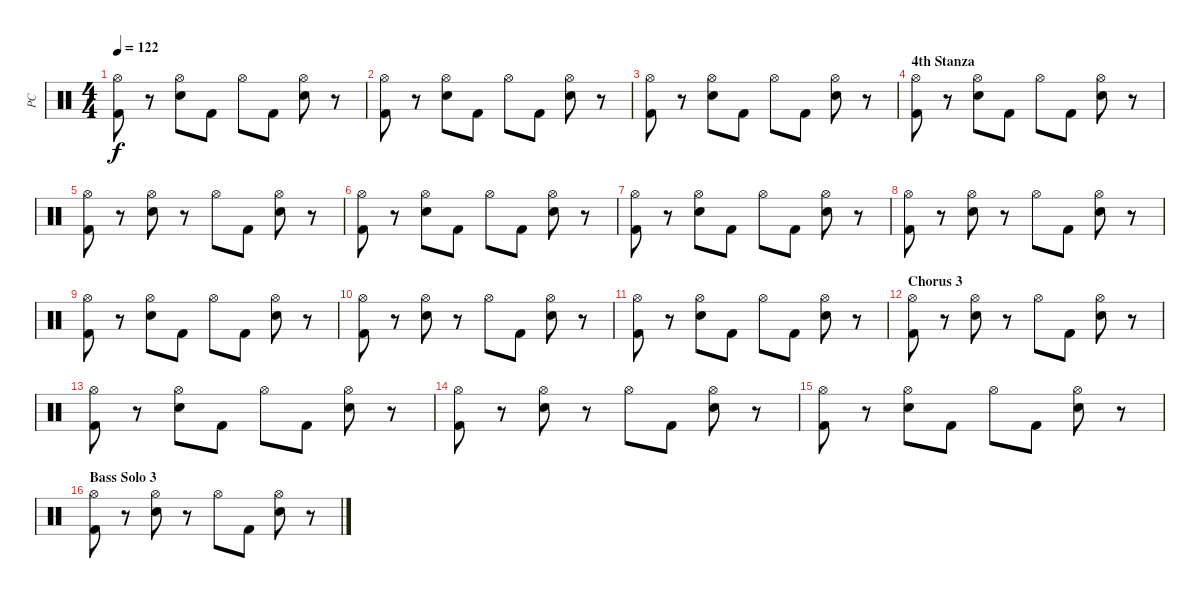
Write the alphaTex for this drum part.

\track ("PC" "PC") {instrument percussion}
\staff {score}
\articulation defaults
\ts (4 4)
\tempo 122
\clef neutral
\ks c
("Hi-Hat (open)" "Kick (hit) 2").8{dy f} r.8 ("Hi-Hat (open)" "Electric Snare (hit)").8 "Kick (hit) 2".8 "Hi-Hat (open)".8 "Kick (hit) 2".8 ("Hi-Hat (open)" "Electric Snare (hit)").8 r.8 |
("Hi-Hat (open)" "Kick (hit) 2").8 r.8 ("Hi-Hat (open)" "Electric Snare (hit)").8 "Kick (hit) 2".8 "Hi-Hat (open)".8 "Kick (hit) 2".8 ("Hi-Hat (open)" "Electric Snare (hit)").8 r.8 |
("Hi-Hat (open)" "Kick (hit) 2").8 r.8 ("Hi-Hat (open)" "Electric Snare (hit)").8 "Kick (hit) 2".8 "Hi-Hat (open)".8 "Kick (hit) 2".8 ("Hi-Hat (open)" "Electric Snare (hit)").8 r.8 |
\section ("" "4th Stanza")
("Hi-Hat (open)" "Kick (hit) 2").8 r.8 ("Hi-Hat (open)" "Electric Snare (hit)").8 "Kick (hit) 2".8 "Hi-Hat (open)".8 "Kick (hit) 2".8 ("Hi-Hat (open)" "Electric Snare (hit)").8 r.8 |
("Hi-Hat (open)" "Kick (hit) 2").8 r.8 ("Hi-Hat (open)" "Electric Snare (hit)").8 r.8 "Hi-Hat (open)".8 "Kick (hit) 2".8 ("Hi-Hat (open)" "Electric Snare (hit)").8 r.8 |
("Hi-Hat (open)" "Kick (hit) 2").8 r.8 ("Hi-Hat (open)" "Electric Snare (hit)").8 "Kick (hit) 2".8 "Hi-Hat (open)".8 "Kick (hit) 2".8 ("Hi-Hat (open)" "Electric Snare (hit)").8 r.8 |
("Hi-Hat (open)" "Kick (hit) 2").8 r.8 ("Hi-Hat (open)" "Electric Snare (hit)").8 "Kick (hit) 2".8 "Hi-Hat (open)".8 "Kick (hit) 2".8 ("Hi-Hat (open)" "Electric Snare (hit)").8 r.8 |
("Hi-Hat (open)" "Kick (hit) 2").8 r.8 ("Hi-Hat (open)" "Electric Snare (hit)").8 r.8 "Hi-Hat (open)".8 "Kick (hit) 2".8 ("Hi-Hat (open)" "Electric Snare (hit)").8 r.8 |
("Hi-Hat (open)" "Kick (hit) 2").8 r.8 ("Hi-Hat (open)" "Electric Snare (hit)").8 "Kick (hit) 2".8 "Hi-Hat (open)".8 "Kick (hit) 2".8 ("Hi-Hat (open)" "Electric Snare (hit)").8 r.8 |
("Hi-Hat (open)" "Kick (hit) 2").8 r.8 ("Hi-Hat (open)" "Electric Snare (hit)").8 r.8 "Hi-Hat (open)".8 "Kick (hit) 2".8 ("Hi-Hat (open)" "Electric Snare (hit)").8 r.8 |
("Hi-Hat (open)" "Kick (hit) 2").8 r.8 ("Hi-Hat (open)" "Electric Snare (hit)").8 "Kick (hit) 2".8 "Hi-Hat (open)".8 "Kick (hit) 2".8 ("Hi-Hat (open)" "Electric Snare (hit)").8 r.8 |
\section ("" "Chorus 3")
("Hi-Hat (open)" "Kick (hit) 2").8 r.8 ("Hi-Hat (open)" "Electric Snare (hit)").8 r.8 "Hi-Hat (open)".8 "Kick (hit) 2".8 ("Hi-Hat (open)" "Electric Snare (hit)").8 r.8 |
("Hi-Hat (open)" "Kick (hit) 2").8 r.8 ("Hi-Hat (open)" "Electric Snare (hit)").8 "Kick (hit) 2".8 "Hi-Hat (open)".8 "Kick (hit) 2".8 ("Hi-Hat (open)" "Electric Snare (hit)").8 r.8 |
("Hi-Hat (open)" "Kick (hit) 2").8 r.8 ("Hi-Hat (open)" "Electric Snare (hit)").8 r.8 "Hi-Hat (open)".8 "Kick (hit) 2".8 ("Hi-Hat (open)" "Electric Snare (hit)").8 r.8 |
("Hi-Hat (open)" "Kick (hit) 2").8 r.8 ("Hi-Hat (open)" "Electric Snare (hit)").8 "Kick (hit) 2".8 "Hi-Hat (open)".8 "Kick (hit) 2".8 ("Hi-Hat (open)" "Electric Snare (hit)").8 r.8 |
\section ("" "Bass Solo 3")
("Hi-Hat (open)" "Kick (hit) 2").8 r.8 ("Hi-Hat (open)" "Electric Snare (hit)").8 r.8 "Hi-Hat (open)".8 "Kick (hit) 2".8 ("Hi-Hat (open)" "Electric Snare (hit)").8 r.8
